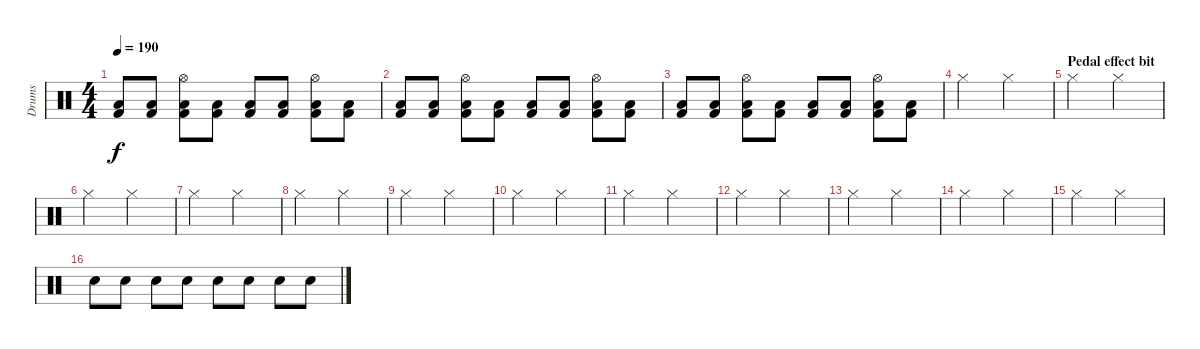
\track ("Drums" "Drums") {instrument percussion}
\staff {score}
\articulation defaults
\ts (4 4)
\tempo 190
\clef neutral
\ks c
("Kick (hit) 2" "Low Floor Tom (hit)").8{dy f} ("Kick (hit) 2" "Low Floor Tom (hit)").8 ("Hi-Hat (open)" "Kick (hit) 2" "Low Floor Tom (hit)").8 ("Kick (hit) 2" "Low Floor Tom (hit)").8 ("Kick (hit) 2" "Low Floor Tom (hit)").8 ("Kick (hit) 2" "Low Floor Tom (hit)").8 ("Hi-Hat (open)" "Kick (hit) 2" "Low Floor Tom (hit)").8 ("Kick (hit) 2" "Low Floor Tom (hit)").8 |
("Kick (hit) 2" "Low Floor Tom (hit)").8 ("Kick (hit) 2" "Low Floor Tom (hit)").8 ("Hi-Hat (open)" "Kick (hit) 2" "Low Floor Tom (hit)").8 ("Kick (hit) 2" "Low Floor Tom (hit)").8 ("Kick (hit) 2" "Low Floor Tom (hit)").8 ("Kick (hit) 2" "Low Floor Tom (hit)").8 ("Hi-Hat (open)" "Kick (hit) 2" "Low Floor Tom (hit)").8 ("Kick (hit) 2" "Low Floor Tom (hit)").8 |
("Kick (hit) 2" "Low Floor Tom (hit)").8 ("Kick (hit) 2" "Low Floor Tom (hit)").8 ("Hi-Hat (open)" "Kick (hit) 2" "Low Floor Tom (hit)").8 ("Kick (hit) 2" "Low Floor Tom (hit)").8 ("Kick (hit) 2" "Low Floor Tom (hit)").8 ("Kick (hit) 2" "Low Floor Tom (hit)").8 ("Hi-Hat (open)" "Kick (hit) 2" "Low Floor Tom (hit)").8 ("Kick (hit) 2" "Low Floor Tom (hit)").8 |
"Hi-Hat (closed)".2 "Hi-Hat (closed)".2 |
\section ("" "Pedal effect bit")
"Hi-Hat (closed)".2 "Hi-Hat (closed)".2 |
"Hi-Hat (closed)".2 "Hi-Hat (closed)".2 |
"Hi-Hat (closed)".2 "Hi-Hat (closed)".2 |
"Hi-Hat (closed)".2 "Hi-Hat (closed)".2 |
"Hi-Hat (closed)".2 "Hi-Hat (closed)".2 |
"Hi-Hat (closed)".2 "Hi-Hat (closed)".2 |
"Hi-Hat (closed)".2 "Hi-Hat (closed)".2 |
"Hi-Hat (closed)".2 "Hi-Hat (closed)".2 |
"Hi-Hat (closed)".2 "Hi-Hat (closed)".2 |
"Hi-Hat (closed)".2 "Hi-Hat (closed)".2 |
"Hi-Hat (closed)".2 "Hi-Hat (closed)".2 |
"Snare (hit) 2".8 "Snare (hit) 2".8 "Snare (hit) 2".8 "Snare (hit) 2".8 "Snare (hit) 2".8 "Snare (hit) 2".8 "Snare (hit) 2".8 "Snare (hit) 2".8
